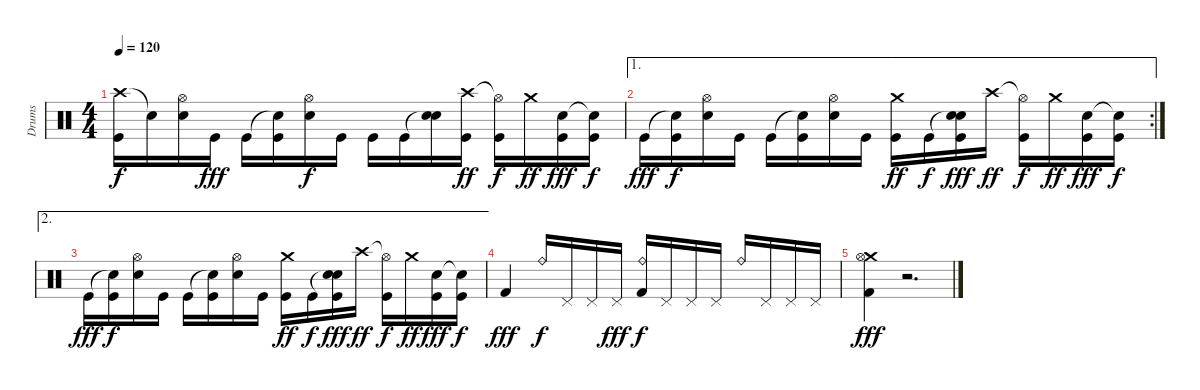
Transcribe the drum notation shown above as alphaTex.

\track ("Drums" "Drums") {instrument percussion}
\staff {score}
\articulation defaults
\ts (4 4)
\tempo 120
\clef neutral
\ks c
("Crash high (hit)" "Kick (hit)").16{dy f} "Snare (hit)"{t}.16 ("Hi-Hat (open)" "Electric Snare (hit)").16 "Kick (hit)".16{dy fff} "Kick (hit)".16 ("Snare (hit)"{t} "Kick (hit)").16 ("Hi-Hat (open)" "Electric Snare (hit)").16{dy f} "Kick (hit)".16 "Kick (hit)".16 "Kick (hit)".16 ("Snare (hit)"{t} "Electric Snare (hit)").16 ("Crash high (hit)" "Kick (hit)").16{dy ff} ("Hi-Hat (open)"{t} "Kick (hit)").16{dy f} "Crash medium (hit)".16{dy ff} ("Electric Snare (hit)" "Kick (hit)").16{dy fff} ("Snare (hit)"{t} "Kick (hit)").16{dy f} |
\ae 1
\rc 2 "Kick (hit)".16{dy fff}
("Snare (hit)"{t} "Kick (hit)").16{dy f} ("Hi-Hat (open)" "Electric Snare (hit)").16 "Kick (hit)".16 "Kick (hit)".16 ("Snare (hit)"{t} "Kick (hit)").16 ("Hi-Hat (open)" "Electric Snare (hit)").16 "Kick (hit)".16 ("Crash medium (hit)" "Kick (hit)").16{dy ff} "Kick (hit)".16{dy f} ("Snare (hit)"{t} "Electric Snare (hit)" "Kick (hit)").16{dy fff} "Crash high (hit)".16{dy ff} ("Hi-Hat (open)"{t} "Kick (hit)").16{dy f} "Crash medium (hit)".16{dy ff} ("Electric Snare (hit)" "Kick (hit)").16{dy fff} ("Snare (hit)"{t} "Kick (hit)").16{dy f} |
\ae 2 "Kick (hit)".16{dy fff}
("Snare (hit)"{t} "Kick (hit)").16{dy f} ("Hi-Hat (open)" "Electric Snare (hit)").16 "Kick (hit)".16 "Kick (hit)".16 ("Snare (hit)"{t} "Kick (hit)").16 ("Hi-Hat (open)" "Electric Snare (hit)").16 "Kick (hit)".16 ("Crash medium (hit)" "Kick (hit)").16{dy ff} "Kick (hit)".16{dy f} ("Snare (hit)"{t} "Electric Snare (hit)" "Kick (hit)").16{dy fff} "Crash high (hit)".16{dy ff} ("Hi-Hat (open)"{t} "Kick (hit)").16{dy f} "Crash medium (hit)".16{dy ff} ("Electric Snare (hit)" "Kick (hit)").16{dy fff} ("Snare (hit)"{t} "Kick (hit)").16{dy f} |
"Kick (hit) 2".4{dy fff} "Ride (bell)".16{dy f} "Pedal Hi-Hat (hit)".16 "Pedal Hi-Hat (hit)".16 "Pedal Hi-Hat (hit)".16{dy fff} ("Ride (bell)" "Kick (hit) 2").16{dy f} "Pedal Hi-Hat (hit)".16 "Pedal Hi-Hat (hit)".16 "Pedal Hi-Hat (hit)".16 "Ride (bell)".16 "Pedal Hi-Hat (hit)".16 "Pedal Hi-Hat (hit)".16 "Pedal Hi-Hat (hit)".16 |
("Crash medium (hit)" "Hi-Hat (open)" "Kick (hit) 2").4{dy fff} r.2{d}
